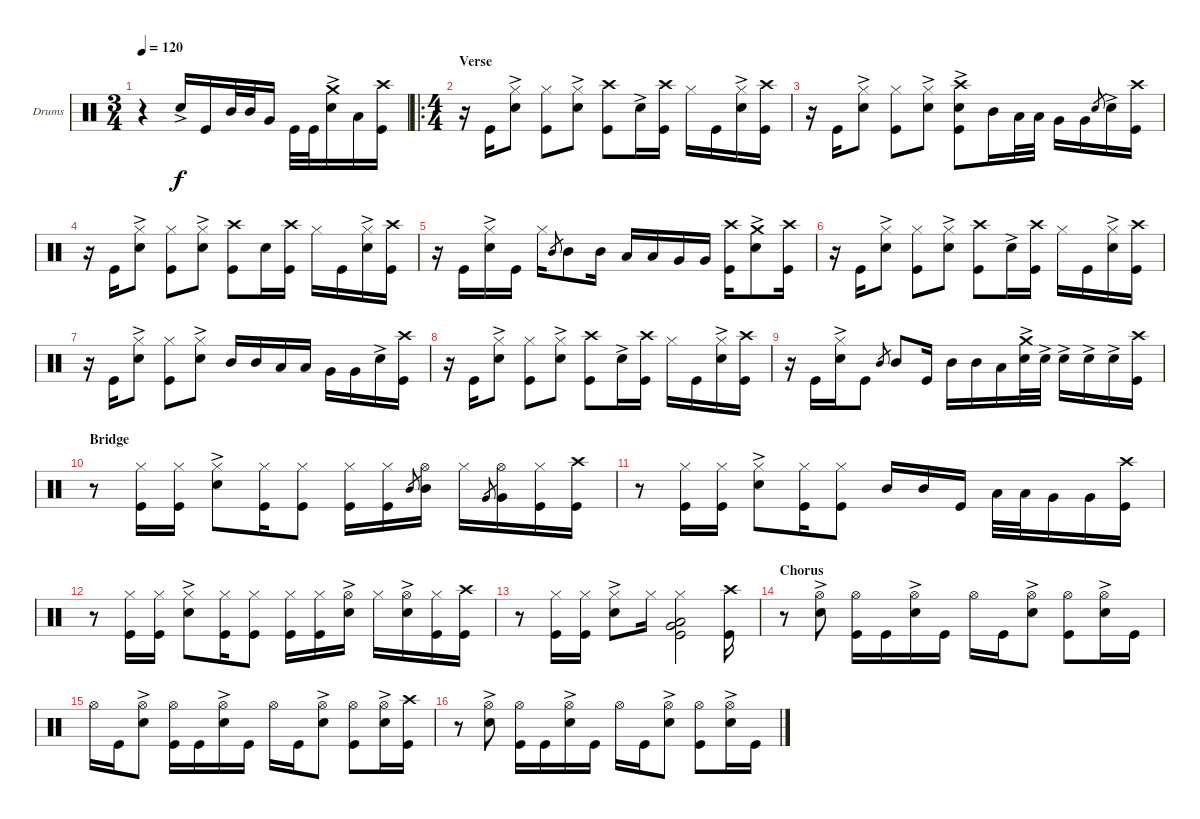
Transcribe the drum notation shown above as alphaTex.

\defaultSystemsLayout 4
\bracketExtendMode groupsimilarinstruments
\firstSystemTrackNameOrientation horizontal
\otherSystemsTrackNameOrientation horizontal
\track ("Drumkit" "Drums") {instrument percussion}
\staff {score}
\articulation defaults
\ts (3 4)
\tempo 120
\clef neutral
\scale
0.29463
\ks c
r.4{dy f} "Snare (hit) 2"{ac}.16 "Kick (hit)".16 "Mid Tom (hit)".32 "Mid Tom (hit)".32 "Very Low Tom (hit)".16 "Kick (hit)".32 "Kick (hit)".32 ("Snare (hit) 2"{ac} "Crash medium (hit)"{ac}).16 "Low Tom (hit)".16 ("Kick (hit)" "Crash high (hit)").16 |
\ro
\ts (4 4)
\section ("" "Verse")
\scale
0.347327 r.16 "Kick (hit)".16 ("Snare (hit) 2"{ac} "Hi-Hat (closed)").8 ("Kick (hit)" "Hi-Hat (closed)").8 ("Snare (hit) 2"{ac} "Hi-Hat (closed)").8 ("Kick (hit)" "Crash high (hit)").8 "Snare (hit) 2"{ac}.16 ("Kick (hit)" "Crash high (hit)").16 "Hi-Hat (closed)".16 "Kick (hit)".16 ("Snare (hit) 2"{ac} "Hi-Hat (closed)").16 ("Kick (hit)" "Crash high (hit)").16 |
\scale
0.35807 r.16 "Kick (hit)".16 ("Snare (hit) 2"{ac} "Hi-Hat (closed)").8 ("Kick (hit)" "Hi-Hat (closed)").8 ("Snare (hit) 2"{ac} "Hi-Hat (closed)").8 ("Kick (hit)" "Snare (hit) 2"{ac} "Crash high (hit)").8 "Mid Tom (hit)".16 "Low Tom (hit)".32 "Low Tom (hit)".32 "Very Low Tom (hit)".16 "Very Low Tom (hit)".16 "Snare (hit) 2".8{gr} "Snare (hit) 2"{ac}.16 ("Kick (hit)" "Crash high (hit)").16 |
r.16 "Kick (hit)".16 ("Snare (hit) 2"{ac} "Hi-Hat (closed)").8 ("Kick (hit)" "Hi-Hat (closed)").8 ("Snare (hit) 2"{ac} "Hi-Hat (closed)").8 ("Kick (hit)" "Crash high (hit)").8 "Snare (hit) 2".16 ("Kick (hit)" "Crash high (hit)").16 "Hi-Hat (closed)".16 "Kick (hit)".16 ("Snare (hit) 2"{ac} "Hi-Hat (closed)").16 ("Kick (hit)" "Crash high (hit)").16 |
r.16 "Kick (hit)".16 ("Snare (hit) 2"{ac} "Hi-Hat (closed)").16 "Kick (hit)".16 "Hi-Hat (closed)".16 "Mid Tom (hit)".8{gr} "Mid Tom (hit)".8 "Mid Tom (hit)".16 "Low Tom (hit)".16 "Low Tom (hit)".16 "Very Low Tom (hit)".16 "Very Low Tom (hit)".16 ("Kick (hit)" "Crash high (hit)").16 ("Snare (hit) 2"{ac} "Crash medium (hit)"{ac}).8 ("Kick (hit)" "Crash high (hit)").16 |
r.16 "Kick (hit)".16 ("Snare (hit) 2"{ac} "Hi-Hat (closed)").8 ("Kick (hit)" "Hi-Hat (closed)").8 ("Snare (hit) 2"{ac} "Hi-Hat (closed)").8 ("Kick (hit)" "Crash high (hit)").8 "Snare (hit) 2"{ac}.16 ("Kick (hit)" "Crash high (hit)").16 "Hi-Hat (closed)".16 "Kick (hit)".16 ("Snare (hit) 2"{ac} "Hi-Hat (closed)").16 ("Kick (hit)" "Crash high (hit)").16 |
r.16 "Kick (hit)".16 ("Snare (hit) 2"{ac} "Hi-Hat (closed)").8 ("Kick (hit)" "Hi-Hat (closed)").8 ("Snare (hit) 2"{ac} "Hi-Hat (closed)").8 "Mid Tom (hit)".16 "Mid Tom (hit)".16 "Low Tom (hit)".16 "Low Tom (hit)".16 "Very Low Tom (hit)".16 "Very Low Tom (hit)".16 "Snare (hit) 2"{ac}.16 ("Kick (hit)" "Crash high (hit)").16 |
r.16 "Kick (hit)".16 ("Snare (hit) 2"{ac} "Hi-Hat (closed)").8 ("Kick (hit)" "Hi-Hat (closed)").8 ("Snare (hit) 2"{ac} "Hi-Hat (closed)").8 ("Kick (hit)" "Crash high (hit)").8 "Snare (hit) 2"{ac}.16 ("Kick (hit)" "Crash high (hit)").16 "Hi-Hat (closed)".16 "Kick (hit)".16 ("Snare (hit) 2"{ac} "Hi-Hat (closed)").16 ("Kick (hit)" "Crash high (hit)").16 |
r.16 "Kick (hit)".16 ("Snare (hit) 2"{ac} "Hi-Hat (closed)").16 "Kick (hit)".8 "Mid Tom (hit)".8{gr} "Mid Tom (hit)".8 "Kick (hit)".16 "Mid Tom (hit)".16 "Mid Tom (hit)".16 "Low Tom (hit)".16 ("Snare (hit) 2"{ac} "Crash medium (hit)"{ac}).32 "Snare (hit) 2"{ac}.32 "Snare (hit) 2"{ac}.16 "Snare (hit) 2"{ac}.16 "Snare (hit) 2"{ac}.16 ("Kick (hit)" "Crash high (hit)").16 |
\section ("" "Bridge")
r.8 ("Kick (hit)" "Hi-Hat (closed)").16 ("Kick (hit)" "Hi-Hat (closed)").16 ("Snare (hit) 2"{ac} "Hi-Hat (closed)").8 ("Kick (hit)" "Hi-Hat (closed)").16 ("Kick (hit)" "Hi-Hat (closed)").8 ("Kick (hit)" "Hi-Hat (closed)").16 ("Kick (hit)" "Hi-Hat (closed)").16 "Mid Tom (hit)".8{gr} ("Mid Tom (hit)" "Hi-Hat (open)").16 "Hi-Hat (closed)".16 "Very Low Tom (hit)".8{gr} ("Very Low Tom (hit)" "Hi-Hat (open)").16 ("Kick (hit)" "Hi-Hat (closed)").16 ("Kick (hit)" "Crash high (hit)").16 |
r.8 ("Kick (hit)" "Hi-Hat (closed)").16 ("Kick (hit)" "Hi-Hat (closed)").16 ("Snare (hit) 2"{ac} "Hi-Hat (closed)").8 ("Kick (hit)" "Hi-Hat (closed)").16 ("Kick (hit)" "Hi-Hat (closed)").8 "Mid Tom (hit)".16 "Mid Tom (hit)".16 "Kick (hit)".16 "Low Tom (hit)".32 "Low Tom (hit)".32 "Very Low Tom (hit)".16 "Very Low Tom (hit)".16 ("Kick (hit)" "Crash high (hit)").16 |
r.8 ("Kick (hit)" "Hi-Hat (closed)").16 ("Kick (hit)" "Hi-Hat (closed)").16 ("Snare (hit) 2"{ac} "Hi-Hat (closed)").8 ("Kick (hit)" "Hi-Hat (closed)").16 ("Kick (hit)" "Hi-Hat (closed)").8 ("Kick (hit)" "Hi-Hat (closed)").16 ("Kick (hit)" "Hi-Hat (closed)").16 ("Snare (hit) 2"{ac} "Hi-Hat (open)").16 "Hi-Hat (closed)".16 ("Snare (hit) 2"{ac} "Hi-Hat (open)").16 ("Kick (hit)" "Hi-Hat (closed)").16 ("Kick (hit)" "Crash high (hit)").16 |
r.8 ("Kick (hit)" "Hi-Hat (closed)").16 ("Kick (hit)" "Hi-Hat (closed)").16 ("Snare (hit) 2"{ac} "Hi-Hat (closed)").8 "Hi-Hat (closed)".16 ("Very Low Tom (hit)" "Low Tom (hit)" "Kick (hit)" "Hi-Hat (closed)").2 ("Kick (hit)" "Crash high (hit)").16 |
\section ("" "Chorus")
r.8 ("Snare (hit) 2"{ac} "Hi-Hat (open)").8 ("Kick (hit)" "Hi-Hat (open)").16 "Kick (hit)".16 ("Snare (hit) 2"{ac} "Hi-Hat (open)").16 "Kick (hit)".16 "Hi-Hat (open)".16 "Kick (hit)".16 ("Snare (hit) 2"{ac} "Hi-Hat (open)").8 ("Kick (hit)" "Hi-Hat (open)").8 ("Snare (hit) 2"{ac} "Hi-Hat (open)").16 "Kick (hit)".16 |
"Hi-Hat (open)".16 "Kick (hit)".16 ("Snare (hit) 2"{ac} "Hi-Hat (open)").8 ("Kick (hit)" "Hi-Hat (open)").16 "Kick (hit)".16 ("Snare (hit) 2"{ac} "Hi-Hat (open)").16 "Kick (hit)".16 "Hi-Hat (open)".16 "Kick (hit)".16 ("Snare (hit) 2"{ac} "Hi-Hat (open)").8 ("Kick (hit)" "Hi-Hat (open)").8 ("Snare (hit) 2"{ac} "Hi-Hat (open)").16 ("Kick (hit)" "Crash high (hit)").16 |
r.8 ("Snare (hit) 2"{ac} "Hi-Hat (open)").8 ("Kick (hit)" "Hi-Hat (open)").16 "Kick (hit)".16 ("Snare (hit) 2"{ac} "Hi-Hat (open)").16 "Kick (hit)".16 "Hi-Hat (open)".16 "Kick (hit)".16 ("Snare (hit) 2"{ac} "Hi-Hat (open)").8 ("Kick (hit)" "Hi-Hat (open)").8 ("Snare (hit) 2"{ac} "Hi-Hat (open)").16 "Kick (hit)".16
